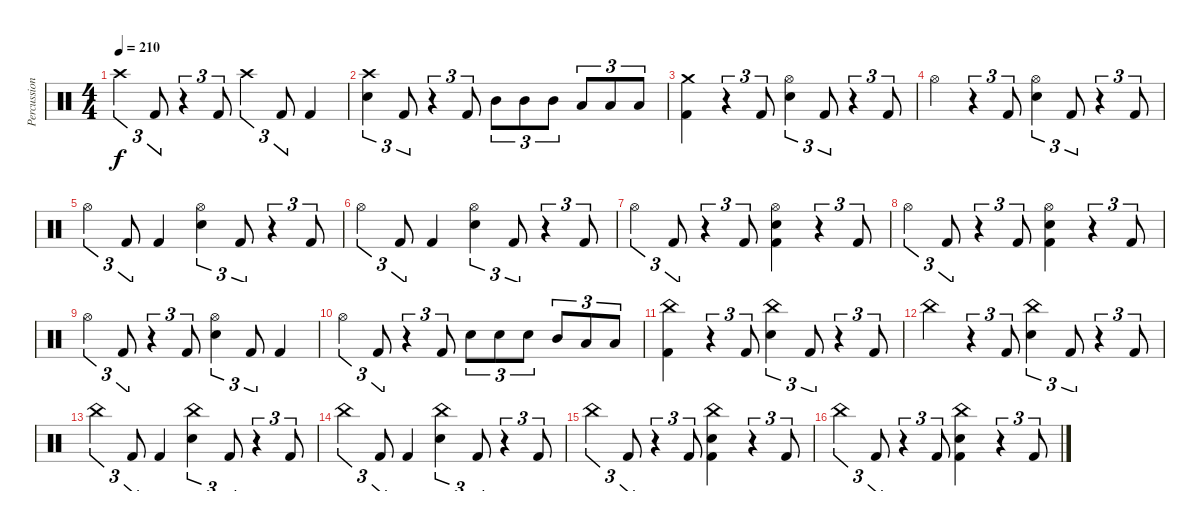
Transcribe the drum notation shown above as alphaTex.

\track ("Percussion" "Percussion") {instrument percussion}
\staff {score}
\articulation defaults
\ts (4 4)
\tempo 210
\clef neutral
\ks c "Crash high (hit)".4{tu (3 2) dy f} "Kick (hit) 2".8{tu (3 2)}
r.4{tu (3 2)} "Kick (hit) 2".8{tu (3 2)} "Crash high (hit)".4{tu (3 2)} "Kick (hit) 2".8{tu (3 2)} "Kick (hit) 2".4 |
("Crash high (hit)" "Electric Snare (hit)").4{tu (3 2)} "Kick (hit) 2".8{tu (3 2)} r.4{tu (3 2)} "Kick (hit) 2".8{tu (3 2)} "Mid Tom (hit)".8{tu (3 2)} "Mid Tom (hit)".8{tu (3 2)} "Mid Tom (hit)".8{tu (3 2)} "Low Tom (hit)".8{tu (3 2)} "Low Tom (hit)".8{tu (3 2)} "Low Tom (hit)".8{tu (3 2)} |
("Crash medium (hit)" "Kick (hit) 2").4 r.4{tu (3 2)} "Kick (hit) 2".8{tu (3 2)} ("Hi-Hat (open)" "Electric Snare (hit)").4{tu (3 2)} "Kick (hit) 2".8{tu (3 2)} r.4{tu (3 2)} "Kick (hit) 2".8{tu (3 2)} |
"Hi-Hat (open)".4 r.4{tu (3 2)} "Kick (hit) 2".8{tu (3 2)} ("Hi-Hat (open)" "Electric Snare (hit)").4{tu (3 2)} "Kick (hit) 2".8{tu (3 2)} r.4{tu (3 2)} "Kick (hit) 2".8{tu (3 2)} |
"Hi-Hat (open)".4{tu (3 2)} "Kick (hit) 2".8{tu (3 2)} "Kick (hit) 2".4 ("Hi-Hat (open)" "Electric Snare (hit)").4{tu (3 2)} "Kick (hit) 2".8{tu (3 2)} r.4{tu (3 2)} "Kick (hit) 2".8{tu (3 2)} |
"Hi-Hat (open)".4{tu (3 2)} "Kick (hit) 2".8{tu (3 2)} "Kick (hit) 2".4 ("Hi-Hat (open)" "Electric Snare (hit)").4{tu (3 2)} "Kick (hit) 2".8{tu (3 2)} r.4{tu (3 2)} "Kick (hit) 2".8{tu (3 2)} |
"Hi-Hat (open)".4{tu (3 2)} "Kick (hit) 2".8{tu (3 2)} r.4{tu (3 2)} "Kick (hit) 2".8{tu (3 2)} ("Hi-Hat (open)" "Electric Snare (hit)" "Kick (hit) 2").4 r.4{tu (3 2)} "Kick (hit) 2".8{tu (3 2)} |
"Hi-Hat (open)".4{tu (3 2)} "Kick (hit) 2".8{tu (3 2)} r.4{tu (3 2)} "Kick (hit) 2".8{tu (3 2)} ("Hi-Hat (open)" "Electric Snare (hit)" "Kick (hit) 2").4 r.4{tu (3 2)} "Kick (hit) 2".8{tu (3 2)} |
"Hi-Hat (open)".4{tu (3 2)} "Kick (hit) 2".8{tu (3 2)} r.4{tu (3 2)} "Kick (hit) 2".8{tu (3 2)} ("Hi-Hat (open)" "Electric Snare (hit)").4{tu (3 2)} "Kick (hit) 2".8{tu (3 2)} "Kick (hit) 2".4 |
"Hi-Hat (open)".4{tu (3 2)} "Kick (hit) 2".8{tu (3 2)} r.4{tu (3 2)} "Kick (hit) 2".8{tu (3 2)} "Electric Snare (hit)".8{tu (3 2)} "Electric Snare (hit)".8{tu (3 2)} "Electric Snare (hit)".8{tu (3 2)} "Mid Tom (hit)".8{tu (3 2)} "Low Tom (hit)".8{tu (3 2)} "Low Tom (hit)".8{tu (3 2)} |
("China (hit)" "Kick (hit) 2").4 r.4{tu (3 2)} "Kick (hit) 2".8{tu (3 2)} ("China (hit)" "Electric Snare (hit)").4{tu (3 2)} "Kick (hit) 2".8{tu (3 2)} r.4{tu (3 2)} "Kick (hit) 2".8{tu (3 2)} |
"China (hit)".4 r.4{tu (3 2)} "Kick (hit) 2".8{tu (3 2)} ("China (hit)" "Electric Snare (hit)").4{tu (3 2)} "Kick (hit) 2".8{tu (3 2)} r.4{tu (3 2)} "Kick (hit) 2".8{tu (3 2)} |
"China (hit)".4{tu (3 2)} "Kick (hit) 2".8{tu (3 2)} "Kick (hit) 2".4 ("China (hit)" "Electric Snare (hit)").4{tu (3 2)} "Kick (hit) 2".8{tu (3 2)} r.4{tu (3 2)} "Kick (hit) 2".8{tu (3 2)} |
"China (hit)".4{tu (3 2)} "Kick (hit) 2".8{tu (3 2)} "Kick (hit) 2".4 ("China (hit)" "Electric Snare (hit)").4{tu (3 2)} "Kick (hit) 2".8{tu (3 2)} r.4{tu (3 2)} "Kick (hit) 2".8{tu (3 2)} |
"China (hit)".4{tu (3 2)} "Kick (hit) 2".8{tu (3 2)} r.4{tu (3 2)} "Kick (hit) 2".8{tu (3 2)} ("China (hit)" "Electric Snare (hit)" "Kick (hit) 2").4 r.4{tu (3 2)} "Kick (hit) 2".8{tu (3 2)} |
"China (hit)".4{tu (3 2)} "Kick (hit) 2".8{tu (3 2)} r.4{tu (3 2)} "Kick (hit) 2".8{tu (3 2)} ("China (hit)" "Electric Snare (hit)" "Kick (hit) 2").4 r.4{tu (3 2)} "Kick (hit) 2".8{tu (3 2)}
